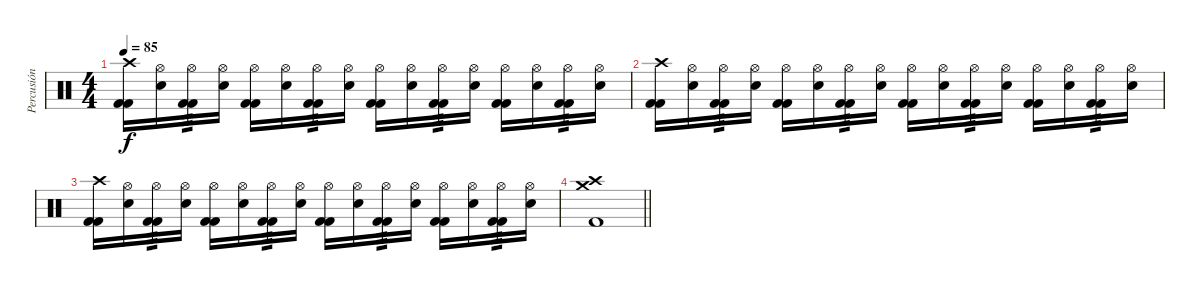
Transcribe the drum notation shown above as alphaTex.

\track ("Percusión" "Percusión") {instrument percussion}
\staff {score}
\articulation defaults
\ts (4 4)
\tempo 85
\clef neutral
\ks c
("Crash high (hit)" "Kick (hit) 2" "Kick (hit) 2").16{dy f volume 14} ("Hi-Hat (open)" "Electric Snare (hit)").16 ("Hi-Hat (open)" "Kick (hit) 2" "Kick (hit) 2").16{tp 3} ("Hi-Hat (open)" "Electric Snare (hit)").16 ("Hi-Hat (open)" "Kick (hit) 2" "Kick (hit) 2").16 ("Hi-Hat (open)" "Electric Snare (hit)").16 ("Hi-Hat (open)" "Kick (hit) 2" "Kick (hit) 2").16{tp 3} ("Hi-Hat (open)" "Electric Snare (hit)").16 ("Hi-Hat (open)" "Kick (hit) 2" "Kick (hit) 2").16 ("Hi-Hat (open)" "Electric Snare (hit)").16 ("Hi-Hat (open)" "Kick (hit) 2" "Kick (hit) 2").16{tp 3} ("Hi-Hat (open)" "Electric Snare (hit)").16 ("Hi-Hat (open)" "Kick (hit) 2" "Kick (hit) 2").16 ("Hi-Hat (open)" "Electric Snare (hit)").16 ("Hi-Hat (open)" "Kick (hit) 2" "Kick (hit) 2").16{tp 3} ("Hi-Hat (open)" "Electric Snare (hit)").16 |
("Crash high (hit)" "Kick (hit) 2" "Kick (hit) 2").16 ("Hi-Hat (open)" "Electric Snare (hit)").16 ("Hi-Hat (open)" "Kick (hit) 2" "Kick (hit) 2").16{tp 3} ("Hi-Hat (open)" "Electric Snare (hit)").16 ("Hi-Hat (open)" "Kick (hit) 2" "Kick (hit) 2").16 ("Hi-Hat (open)" "Electric Snare (hit)").16 ("Hi-Hat (open)" "Kick (hit) 2" "Kick (hit) 2").16{tp 3} ("Hi-Hat (open)" "Electric Snare (hit)").16 ("Hi-Hat (open)" "Kick (hit) 2" "Kick (hit) 2").16 ("Hi-Hat (open)" "Electric Snare (hit)").16 ("Hi-Hat (open)" "Kick (hit) 2" "Kick (hit) 2").16{tp 3} ("Hi-Hat (open)" "Electric Snare (hit)").16 ("Hi-Hat (open)" "Kick (hit) 2" "Kick (hit) 2").16 ("Hi-Hat (open)" "Electric Snare (hit)").16 ("Hi-Hat (open)" "Kick (hit) 2" "Kick (hit) 2").16{tp 3} ("Hi-Hat (open)" "Electric Snare (hit)").16 |
("Crash high (hit)" "Kick (hit) 2" "Kick (hit) 2").16{volume 14} ("Hi-Hat (open)" "Electric Snare (hit)").16 ("Hi-Hat (open)" "Kick (hit) 2" "Kick (hit) 2").16{tp 3} ("Hi-Hat (open)" "Electric Snare (hit)").16 ("Hi-Hat (open)" "Kick (hit) 2" "Kick (hit) 2").16 ("Hi-Hat (open)" "Electric Snare (hit)").16 ("Hi-Hat (open)" "Kick (hit) 2" "Kick (hit) 2").16{tp 3} ("Hi-Hat (open)" "Electric Snare (hit)").16 ("Hi-Hat (open)" "Kick (hit) 2" "Kick (hit) 2").16 ("Hi-Hat (open)" "Electric Snare (hit)").16 ("Hi-Hat (open)" "Kick (hit) 2" "Kick (hit) 2").16{tp 3} ("Hi-Hat (open)" "Electric Snare (hit)").16 ("Hi-Hat (open)" "Kick (hit) 2" "Kick (hit) 2").16 ("Hi-Hat (open)" "Electric Snare (hit)").16 ("Hi-Hat (open)" "Kick (hit) 2" "Kick (hit) 2").16{tp 3} ("Hi-Hat (open)" "Electric Snare (hit)").16 |
\barLineRight lightlight
("Crash high (hit)" "Kick (hit) 2" "Crash medium (hit)").1
